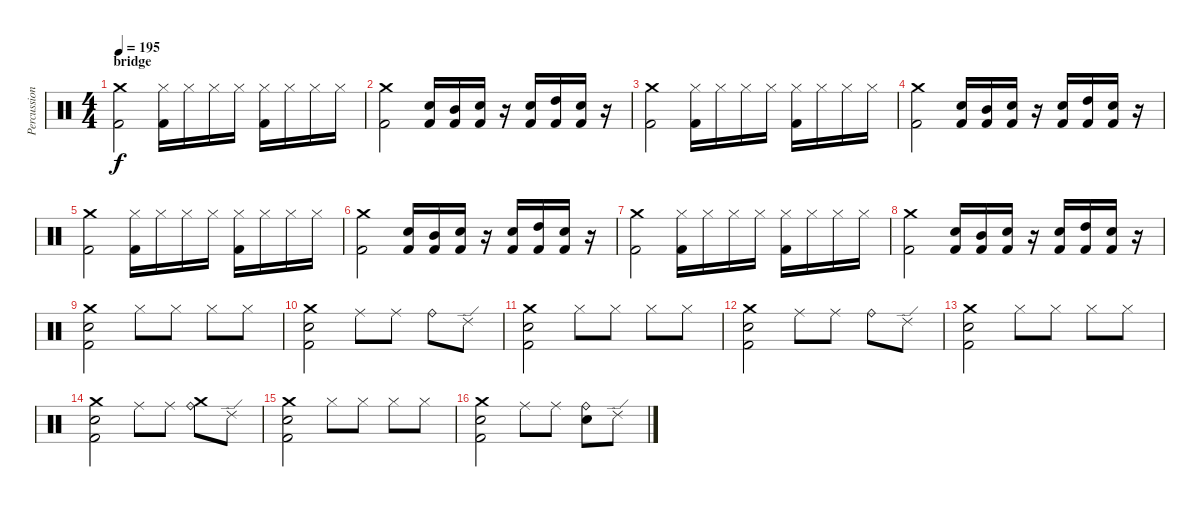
\track ("Percussion" "Percussion") {instrument percussion}
\staff {score}
\articulation defaults
\ts (4 4)
\section ("" "bridge")
\tempo 195
\clef neutral
\ks c
("Crash medium (hit)" "Kick (hit) 2").2{dy f} ("Kick (hit) 2" "Hi-Hat (closed)").16 "Hi-Hat (closed)".16 "Hi-Hat (closed)".16 "Hi-Hat (closed)".16 ("Kick (hit) 2" "Hi-Hat (closed)").16 "Hi-Hat (closed)".16 "Hi-Hat (closed)".16 "Hi-Hat (closed)".16 |
("Crash medium (hit)" "Kick (hit) 2").2 ("Electric Snare (hit)" "Kick (hit) 2").16 ("Mid Tom (hit)" "Kick (hit) 2").16 ("Electric Snare (hit)" "Kick (hit) 2").16 r.16 ("Electric Snare (hit)" "Kick (hit) 2").16 ("High Tom (hit)" "Kick (hit) 2").16 ("Electric Snare (hit)" "Kick (hit) 2").16 r.16 |
("Crash medium (hit)" "Kick (hit) 2").2 ("Kick (hit) 2" "Hi-Hat (closed)").16 "Hi-Hat (closed)".16 "Hi-Hat (closed)".16 "Hi-Hat (closed)".16 ("Kick (hit) 2" "Hi-Hat (closed)").16 "Hi-Hat (closed)".16 "Hi-Hat (closed)".16 "Hi-Hat (closed)".16 |
("Crash medium (hit)" "Kick (hit) 2").2 ("Electric Snare (hit)" "Kick (hit) 2").16 ("Mid Tom (hit)" "Kick (hit) 2").16 ("Electric Snare (hit)" "Kick (hit) 2").16 r.16 ("Electric Snare (hit)" "Kick (hit) 2").16 ("High Tom (hit)" "Kick (hit) 2").16 ("Electric Snare (hit)" "Kick (hit) 2").16 r.16 |
("Crash medium (hit)" "Kick (hit) 2").2 ("Kick (hit) 2" "Hi-Hat (closed)").16 "Hi-Hat (closed)".16 "Hi-Hat (closed)".16 "Hi-Hat (closed)".16 ("Kick (hit) 2" "Hi-Hat (closed)").16 "Hi-Hat (closed)".16 "Hi-Hat (closed)".16 "Hi-Hat (closed)".16 |
("Crash medium (hit)" "Kick (hit) 2").2 ("Electric Snare (hit)" "Kick (hit) 2").16 ("Mid Tom (hit)" "Kick (hit) 2").16 ("Electric Snare (hit)" "Kick (hit) 2").16 r.16 ("Electric Snare (hit)" "Kick (hit) 2").16 ("High Tom (hit)" "Kick (hit) 2").16 ("Electric Snare (hit)" "Kick (hit) 2").16 r.16 |
\section ("" "")
("Crash medium (hit)" "Kick (hit) 2").2 ("Kick (hit) 2" "Hi-Hat (closed)").16 "Hi-Hat (closed)".16 "Hi-Hat (closed)".16 "Hi-Hat (closed)".16 ("Kick (hit) 2" "Hi-Hat (closed)").16 "Hi-Hat (closed)".16 "Hi-Hat (closed)".16 "Hi-Hat (closed)".16 |
("Crash medium (hit)" "Kick (hit) 2").2 ("Electric Snare (hit)" "Kick (hit) 2").16 ("Mid Tom (hit)" "Kick (hit) 2").16 ("Electric Snare (hit)" "Kick (hit) 2").16 r.16 ("Electric Snare (hit)" "Kick (hit) 2").16 ("High Tom (hit)" "Kick (hit) 2").16 ("Electric Snare (hit)" "Kick (hit) 2").16 r.16 |
("Crash medium (hit)" "Electric Snare (hit)" "Kick (hit) 2").2 "Hi-Hat (closed)".8 "Hi-Hat (closed)".8 "Hi-Hat (closed)".8 "Hi-Hat (closed)".8 |
("Crash medium (hit)" "Electric Snare (hit)" "Kick (hit) 2").2 "Ride (middle)".8 "Ride (middle)".8 "Ride (bell)".8 "Ride (edge) 2".8 |
\section ("" "")
("Crash medium (hit)" "Electric Snare (hit)" "Kick (hit) 2").2 "Hi-Hat (closed)".8 "Hi-Hat (closed)".8 "Hi-Hat (closed)".8 "Hi-Hat (closed)".8 |
("Crash medium (hit)" "Electric Snare (hit)" "Kick (hit) 2").2 "Ride (middle)".8 "Ride (middle)".8 "Ride (bell)".8 "Ride (edge) 2".8 |
("Crash medium (hit)" "Electric Snare (hit)" "Kick (hit) 2").2 "Hi-Hat (closed)".8 "Hi-Hat (closed)".8 "Hi-Hat (closed)".8 "Hi-Hat (closed)".8 |
("Crash medium (hit)" "Electric Snare (hit)" "Kick (hit) 2").2 "Ride (middle)".8 "Ride (middle)".8 ("Crash medium (hit)" "Ride (bell)").8 "Ride (edge) 2".8 |
("Crash medium (hit)" "Electric Snare (hit)" "Kick (hit) 2").2 "Hi-Hat (closed)".8 "Hi-Hat (closed)".8 "Hi-Hat (closed)".8 "Hi-Hat (closed)".8 |
("Crash medium (hit)" "Electric Snare (hit)" "Kick (hit) 2").2 "Ride (middle)".8 "Ride (middle)".8 ("Electric Snare (hit)" "Ride (bell)").8 "Ride (edge) 2".8
